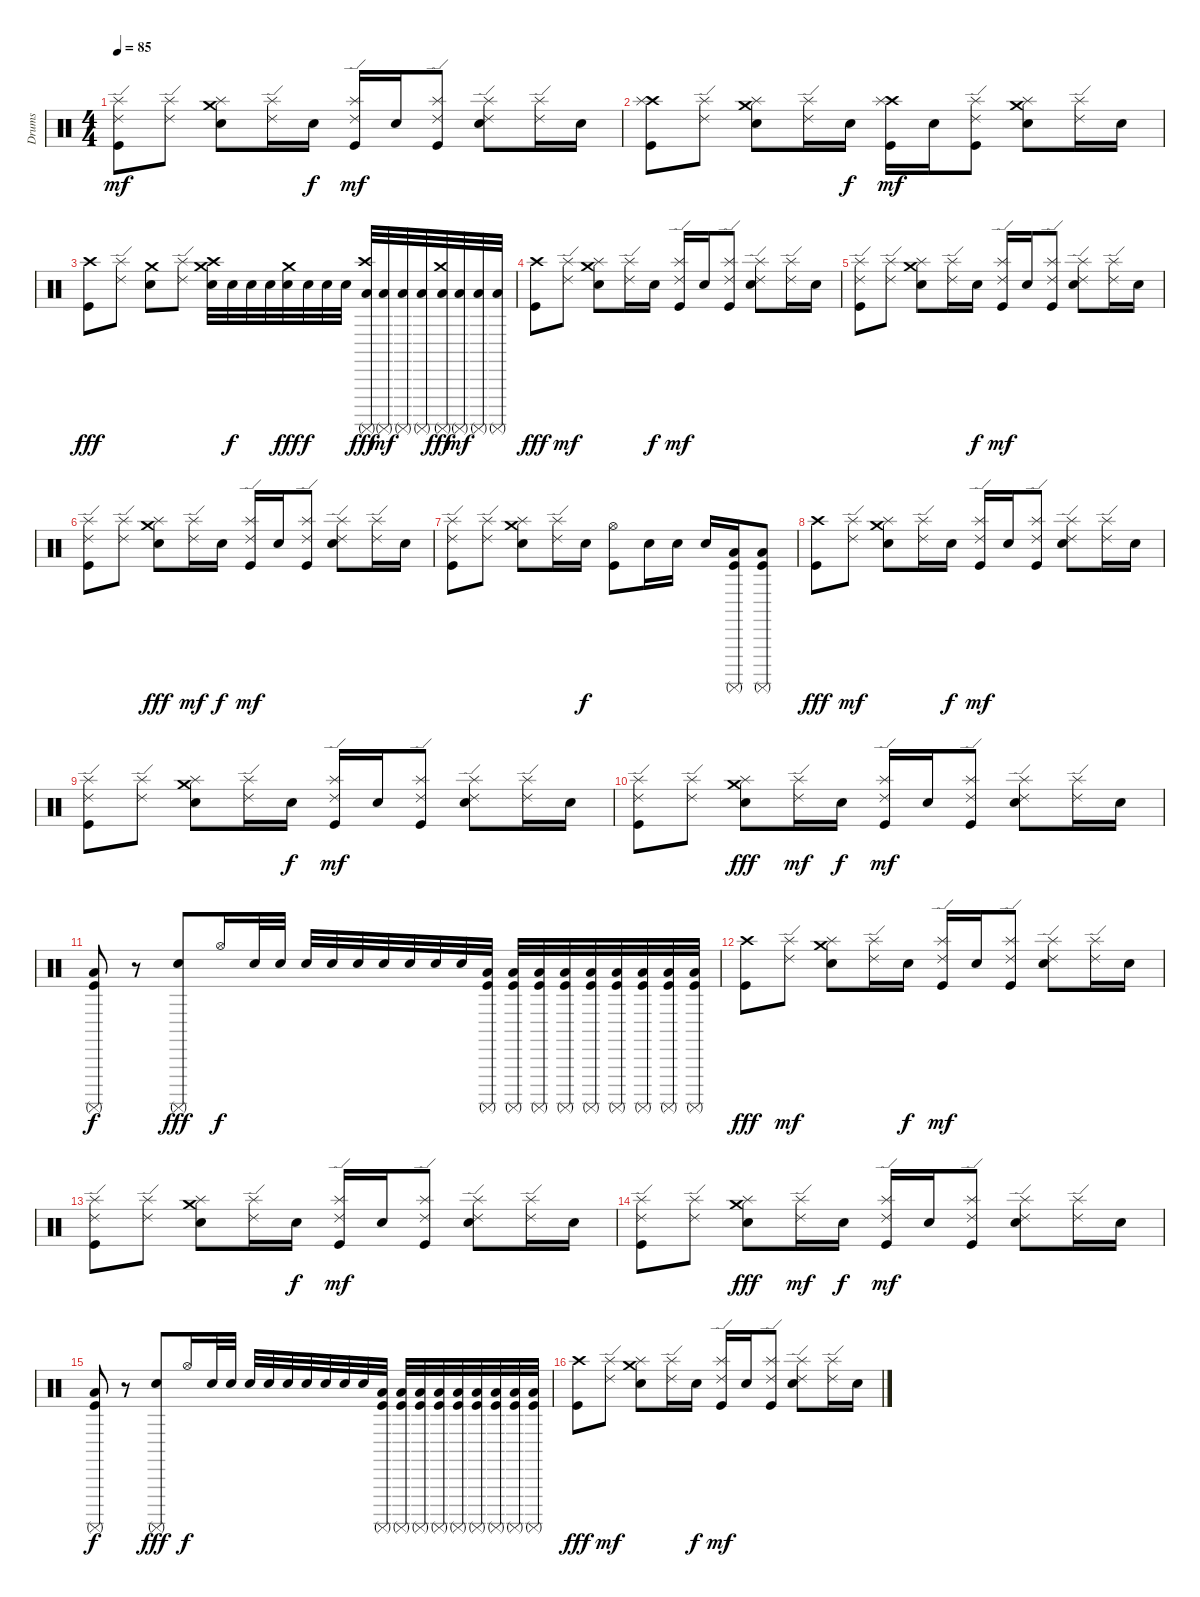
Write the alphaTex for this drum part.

\track ("Drums" "Drums") {instrument percussion}
\staff {score}
\articulation defaults
\ts (4 4)
\tempo 85
\clef neutral
\ks c
("Ride (edge) 2" "Splash (hit)" "Kick (hit)").8{dy mf} ("Ride (edge) 2" "Splash (hit)").8 ("Crash medium (hit)" "Splash (hit)" "Snare (hit) 2").8 ("Ride (edge) 2" "Splash (hit)").16 "Snare (hit) 2".16{dy f} ("Ride (edge) 2" "Splash (hit)" "Kick (hit)").16{dy mf} "Snare (hit) 2".16 ("Ride (edge) 2" "Splash (hit)" "Kick (hit)").8 ("Ride (edge) 2" "Splash (hit)" "Snare (hit) 2").8 ("Ride (edge) 2" "Splash (hit)").16 "Snare (hit) 2".16 |
("Crash high (hit)" "Splash (hit)" "Kick (hit)").8 ("Ride (edge) 2" "Splash (hit)").8 ("Crash medium (hit)" "Splash (hit)" "Snare (hit) 2").8 ("Ride (edge) 2" "Splash (hit)").16 "Snare (hit) 2".16{dy f} ("Crash high (hit)" "Splash (hit)" "Kick (hit)").16{dy mf} "Snare (hit) 2".16 ("Ride (edge) 2" "Splash (hit)" "Kick (hit)").8 ("Crash medium (hit)" "Splash (hit)" "Snare (hit) 2").8 ("Ride (edge) 2" "Splash (hit)").16 "Snare (hit) 2".16 |
("Crash high (hit)" "Kick (hit)").8{dy fff} ("Ride (edge) 2" "Splash (hit)").8 ("Crash medium (hit)" "Snare (hit) 2").8 ("Ride (edge) 2" "Splash (hit)").8 ("Crash high (hit)" "Crash medium (hit)" "Snare (hit) 2").32 "Snare (hit) 2".32{dy f} "Snare (hit) 2".32 "Snare (hit) 2".32 ("Crash medium (hit)" "Snare (hit) 2").32{dy fff} "Snare (hit) 2".32{dy f} "Snare (hit) 2".32 "Snare (hit) 2".32 ("Surdo (mute)" "Low Floor Tom (hit)" "Crash high (hit)").32{dy fff} ("Surdo (mute)" "Low Floor Tom (hit)").32{dy mf} ("Surdo (mute)" "Low Floor Tom (hit)").32 ("Surdo (mute)" "Low Floor Tom (hit)").32 ("Surdo (mute)" "Low Floor Tom (hit)" "Crash medium (hit)").32{dy fff} ("Surdo (mute)" "Low Floor Tom (hit)").32{dy mf} ("Surdo (mute)" "Low Floor Tom (hit)").32 ("Surdo (mute)" "Low Floor Tom (hit)").32 |
("Crash high (hit)" "Kick (hit)").8{dy fff} ("Ride (edge) 2" "Splash (hit)").8{dy mf} ("Crash medium (hit)" "Splash (hit)" "Snare (hit) 2").8 ("Ride (edge) 2" "Splash (hit)").16 "Snare (hit) 2".16{dy f} ("Ride (edge) 2" "Splash (hit)" "Kick (hit)").16{dy mf} "Snare (hit) 2".16 ("Ride (edge) 2" "Splash (hit)" "Kick (hit)").8 ("Ride (edge) 2" "Splash (hit)" "Snare (hit) 2").8 ("Ride (edge) 2" "Splash (hit)").16 "Snare (hit) 2".16 |
("Ride (edge) 2" "Splash (hit)" "Kick (hit)").8 ("Ride (edge) 2" "Splash (hit)").8 ("Crash medium (hit)" "Splash (hit)" "Snare (hit) 2").8 ("Ride (edge) 2" "Splash (hit)").16 "Snare (hit) 2".16{dy f} ("Ride (edge) 2" "Splash (hit)" "Kick (hit)").16{dy mf} "Snare (hit) 2".16 ("Ride (edge) 2" "Splash (hit)" "Kick (hit)").8 ("Ride (edge) 2" "Splash (hit)" "Snare (hit) 2").8 ("Ride (edge) 2" "Splash (hit)").16 "Snare (hit) 2".16 |
("Ride (edge) 2" "Splash (hit)" "Kick (hit)").8 ("Ride (edge) 2" "Splash (hit)").8 ("Crash medium (hit)" "Splash (hit)" "Snare (hit) 2").8{dy fff} ("Ride (edge) 2" "Splash (hit)").16{dy mf} "Snare (hit) 2".16{dy f} ("Ride (edge) 2" "Splash (hit)" "Kick (hit)").16{dy mf} "Snare (hit) 2".16 ("Ride (edge) 2" "Splash (hit)" "Kick (hit)").8 ("Ride (edge) 2" "Splash (hit)" "Snare (hit) 2").8 ("Ride (edge) 2" "Splash (hit)").16 "Snare (hit) 2".16 |
("Ride (edge) 2" "Splash (hit)" "Kick (hit)").8 ("Ride (edge) 2" "Splash (hit)").8 ("Crash medium (hit)" "Splash (hit)" "Snare (hit) 2").8 ("Ride (edge) 2" "Splash (hit)").16 "Snare (hit) 2".16{dy f} ("Hi-Hat (open)" "Kick (hit)").8 "Snare (hit) 2".16 "Snare (hit) 2".16 "Snare (hit) 2".16 ("Surdo (mute)" "Low Floor Tom (hit)" "Kick (hit)").16 ("Surdo (mute)" "Low Floor Tom (hit)" "Kick (hit)").8 |
("Crash high (hit)" "Kick (hit)").8{dy fff} ("Ride (edge) 2" "Splash (hit)").8{dy mf} ("Crash medium (hit)" "Splash (hit)" "Snare (hit) 2").8 ("Ride (edge) 2" "Splash (hit)").16 "Snare (hit) 2".16{dy f} ("Ride (edge) 2" "Splash (hit)" "Kick (hit)").16{dy mf} "Snare (hit) 2".16 ("Ride (edge) 2" "Splash (hit)" "Kick (hit)").8 ("Ride (edge) 2" "Splash (hit)" "Snare (hit) 2").8 ("Ride (edge) 2" "Splash (hit)").16 "Snare (hit) 2".16 |
("Ride (edge) 2" "Splash (hit)" "Kick (hit)").8 ("Ride (edge) 2" "Splash (hit)").8 ("Crash medium (hit)" "Splash (hit)" "Snare (hit) 2").8 ("Ride (edge) 2" "Splash (hit)").16 "Snare (hit) 2".16{dy f} ("Ride (edge) 2" "Splash (hit)" "Kick (hit)").16{dy mf} "Snare (hit) 2".16 ("Ride (edge) 2" "Splash (hit)" "Kick (hit)").8 ("Ride (edge) 2" "Splash (hit)" "Snare (hit) 2").8 ("Ride (edge) 2" "Splash (hit)").16 "Snare (hit) 2".16 |
("Ride (edge) 2" "Splash (hit)" "Kick (hit)").8 ("Ride (edge) 2" "Splash (hit)").8 ("Crash medium (hit)" "Splash (hit)" "Snare (hit) 2").8{dy fff} ("Ride (edge) 2" "Splash (hit)").16{dy mf} "Snare (hit) 2".16{dy f} ("Ride (edge) 2" "Splash (hit)" "Kick (hit)").16{dy mf} "Snare (hit) 2".16 ("Ride (edge) 2" "Splash (hit)" "Kick (hit)").8 ("Ride (edge) 2" "Splash (hit)" "Snare (hit) 2").8 ("Ride (edge) 2" "Splash (hit)").16 "Snare (hit) 2".16 |
("Surdo (mute)" "Low Floor Tom (hit)" "Kick (hit)").8{dy f} r.8 ("Surdo (mute)" "Snare (hit) 2").8{dy fff} "Hi-Hat (open)".16{dy f} "Snare (hit) 2".32 "Snare (hit) 2".32 "Snare (hit) 2".32 "Snare (hit) 2".32 "Snare (hit) 2".32 "Snare (hit) 2".32 "Snare (hit) 2".32 "Snare (hit) 2".32 "Snare (hit) 2".32 ("Surdo (mute)" "Low Floor Tom (hit)" "Kick (hit)").32 ("Surdo (mute)" "Low Floor Tom (hit)" "Kick (hit)").32 ("Surdo (mute)" "Low Floor Tom (hit)" "Kick (hit)").32 ("Surdo (mute)" "Low Floor Tom (hit)" "Kick (hit)").32 ("Surdo (mute)" "Low Floor Tom (hit)" "Kick (hit)").32 ("Surdo (mute)" "Low Floor Tom (hit)" "Kick (hit)").32 ("Surdo (mute)" "Low Floor Tom (hit)" "Kick (hit)").32 ("Surdo (mute)" "Low Floor Tom (hit)" "Kick (hit)").32 ("Surdo (mute)" "Low Floor Tom (hit)" "Kick (hit)").32 |
("Crash high (hit)" "Kick (hit)").8{dy fff} ("Ride (edge) 2" "Splash (hit)").8{dy mf} ("Crash medium (hit)" "Splash (hit)" "Snare (hit) 2").8 ("Ride (edge) 2" "Splash (hit)").16 "Snare (hit) 2".16{dy f} ("Ride (edge) 2" "Splash (hit)" "Kick (hit)").16{dy mf} "Snare (hit) 2".16 ("Ride (edge) 2" "Splash (hit)" "Kick (hit)").8 ("Ride (edge) 2" "Splash (hit)" "Snare (hit) 2").8 ("Ride (edge) 2" "Splash (hit)").16 "Snare (hit) 2".16 |
("Ride (edge) 2" "Splash (hit)" "Kick (hit)").8 ("Ride (edge) 2" "Splash (hit)").8 ("Crash medium (hit)" "Splash (hit)" "Snare (hit) 2").8 ("Ride (edge) 2" "Splash (hit)").16 "Snare (hit) 2".16{dy f} ("Ride (edge) 2" "Splash (hit)" "Kick (hit)").16{dy mf} "Snare (hit) 2".16 ("Ride (edge) 2" "Splash (hit)" "Kick (hit)").8 ("Ride (edge) 2" "Splash (hit)" "Snare (hit) 2").8 ("Ride (edge) 2" "Splash (hit)").16 "Snare (hit) 2".16 |
("Ride (edge) 2" "Splash (hit)" "Kick (hit)").8 ("Ride (edge) 2" "Splash (hit)").8 ("Crash medium (hit)" "Splash (hit)" "Snare (hit) 2").8{dy fff} ("Ride (edge) 2" "Splash (hit)").16{dy mf} "Snare (hit) 2".16{dy f} ("Ride (edge) 2" "Splash (hit)" "Kick (hit)").16{dy mf} "Snare (hit) 2".16 ("Ride (edge) 2" "Splash (hit)" "Kick (hit)").8 ("Ride (edge) 2" "Splash (hit)" "Snare (hit) 2").8 ("Ride (edge) 2" "Splash (hit)").16 "Snare (hit) 2".16 |
("Surdo (mute)" "Low Floor Tom (hit)" "Kick (hit)").8{dy f} r.8 ("Surdo (mute)" "Snare (hit) 2").8{dy fff} "Hi-Hat (open)".16{dy f} "Snare (hit) 2".32 "Snare (hit) 2".32 "Snare (hit) 2".32 "Snare (hit) 2".32 "Snare (hit) 2".32 "Snare (hit) 2".32 "Snare (hit) 2".32 "Snare (hit) 2".32 "Snare (hit) 2".32 ("Surdo (mute)" "Low Floor Tom (hit)" "Kick (hit)").32 ("Surdo (mute)" "Low Floor Tom (hit)" "Kick (hit)").32 ("Surdo (mute)" "Low Floor Tom (hit)" "Kick (hit)").32 ("Surdo (mute)" "Low Floor Tom (hit)" "Kick (hit)").32 ("Surdo (mute)" "Low Floor Tom (hit)" "Kick (hit)").32 ("Surdo (mute)" "Low Floor Tom (hit)" "Kick (hit)").32 ("Surdo (mute)" "Low Floor Tom (hit)" "Kick (hit)").32 ("Surdo (mute)" "Low Floor Tom (hit)" "Kick (hit)").32 ("Surdo (mute)" "Low Floor Tom (hit)" "Kick (hit)").32 |
("Crash high (hit)" "Kick (hit)").8{dy fff} ("Ride (edge) 2" "Splash (hit)").8{dy mf} ("Crash medium (hit)" "Splash (hit)" "Snare (hit) 2").8 ("Ride (edge) 2" "Splash (hit)").16 "Snare (hit) 2".16{dy f} ("Ride (edge) 2" "Splash (hit)" "Kick (hit)").16{dy mf} "Snare (hit) 2".16 ("Ride (edge) 2" "Splash (hit)" "Kick (hit)").8 ("Ride (edge) 2" "Splash (hit)" "Snare (hit) 2").8 ("Ride (edge) 2" "Splash (hit)").16 "Snare (hit) 2".16
